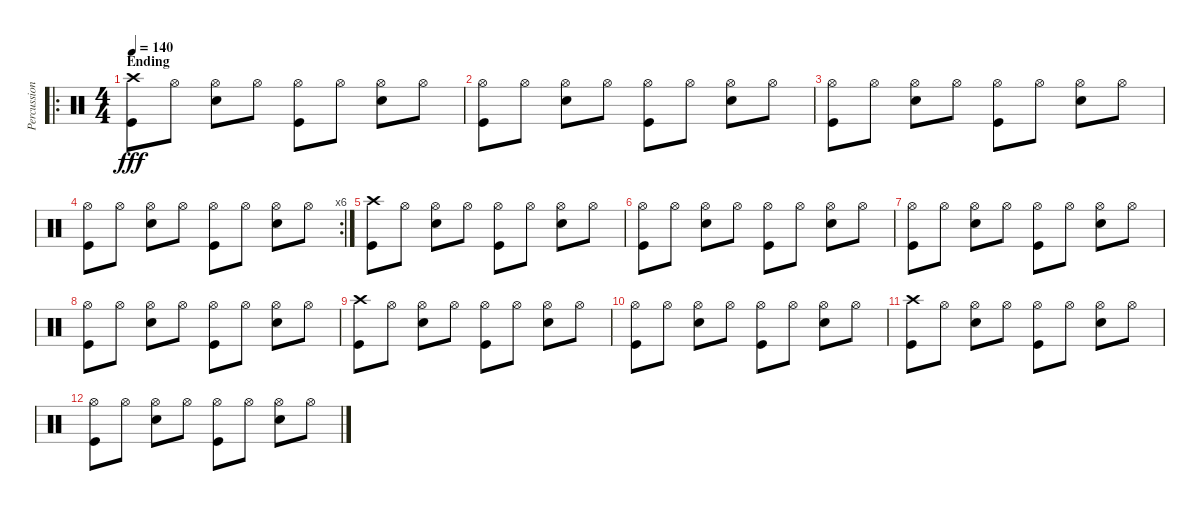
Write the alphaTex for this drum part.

\track ("Percussion" "Percussion") {instrument percussion}
\staff {score}
\articulation defaults
\ro
\ts (4 4)
\section ("" "Ending")
\tempo 140
\clef neutral
\ks c
("Crash high (hit)" "Kick (hit)").8{dy fff} "Hi-Hat (open)".8 ("Hi-Hat (open)" "Snare (hit) 2").8 "Hi-Hat (open)".8 ("Hi-Hat (open)" "Kick (hit)").8 "Hi-Hat (open)".8 ("Hi-Hat (open)" "Snare (hit) 2").8 "Hi-Hat (open)".8 |
("Hi-Hat (open)" "Kick (hit)").8 "Hi-Hat (open)".8 ("Hi-Hat (open)" "Snare (hit) 2").8 "Hi-Hat (open)".8 ("Hi-Hat (open)" "Kick (hit)").8 "Hi-Hat (open)".8 ("Hi-Hat (open)" "Snare (hit) 2").8 "Hi-Hat (open)".8 |
("Hi-Hat (open)" "Kick (hit)").8 "Hi-Hat (open)".8 ("Hi-Hat (open)" "Snare (hit) 2").8 "Hi-Hat (open)".8 ("Hi-Hat (open)" "Kick (hit)").8 "Hi-Hat (open)".8 ("Hi-Hat (open)" "Snare (hit) 2").8 "Hi-Hat (open)".8 |
\rc 6
("Hi-Hat (open)" "Kick (hit)").8 "Hi-Hat (open)".8 ("Hi-Hat (open)" "Snare (hit) 2").8 "Hi-Hat (open)".8 ("Hi-Hat (open)" "Kick (hit)").8 "Hi-Hat (open)".8 ("Hi-Hat (open)" "Snare (hit) 2").8 "Hi-Hat (open)".8 |
("Crash high (hit)" "Kick (hit)").8 "Hi-Hat (open)".8 ("Hi-Hat (open)" "Snare (hit) 2").8 "Hi-Hat (open)".8 ("Hi-Hat (open)" "Kick (hit)").8 "Hi-Hat (open)".8 ("Hi-Hat (open)" "Snare (hit) 2").8 "Hi-Hat (open)".8 |
("Hi-Hat (open)" "Kick (hit)").8 "Hi-Hat (open)".8 ("Hi-Hat (open)" "Snare (hit) 2").8 "Hi-Hat (open)".8 ("Hi-Hat (open)" "Kick (hit)").8 "Hi-Hat (open)".8 ("Hi-Hat (open)" "Snare (hit) 2").8 "Hi-Hat (open)".8 |
("Hi-Hat (open)" "Kick (hit)").8 "Hi-Hat (open)".8 ("Hi-Hat (open)" "Snare (hit) 2").8 "Hi-Hat (open)".8 ("Hi-Hat (open)" "Kick (hit)").8 "Hi-Hat (open)".8 ("Hi-Hat (open)" "Snare (hit) 2").8 "Hi-Hat (open)".8 |
("Hi-Hat (open)" "Kick (hit)").8 "Hi-Hat (open)".8 ("Hi-Hat (open)" "Snare (hit) 2").8 "Hi-Hat (open)".8 ("Hi-Hat (open)" "Kick (hit)").8 "Hi-Hat (open)".8 ("Hi-Hat (open)" "Snare (hit) 2").8 "Hi-Hat (open)".8 |
("Crash high (hit)" "Kick (hit)").8 "Hi-Hat (open)".8 ("Hi-Hat (open)" "Snare (hit) 2").8 "Hi-Hat (open)".8 ("Hi-Hat (open)" "Kick (hit)").8 "Hi-Hat (open)".8 ("Hi-Hat (open)" "Snare (hit) 2").8 "Hi-Hat (open)".8 |
("Hi-Hat (open)" "Kick (hit)").8 "Hi-Hat (open)".8 ("Hi-Hat (open)" "Snare (hit) 2").8 "Hi-Hat (open)".8 ("Hi-Hat (open)" "Kick (hit)").8 "Hi-Hat (open)".8 ("Hi-Hat (open)" "Snare (hit) 2").8 "Hi-Hat (open)".8 |
("Crash high (hit)" "Kick (hit)").8 "Hi-Hat (open)".8 ("Hi-Hat (open)" "Snare (hit) 2").8 "Hi-Hat (open)".8 ("Hi-Hat (open)" "Kick (hit)").8 "Hi-Hat (open)".8 ("Hi-Hat (open)" "Snare (hit) 2").8 "Hi-Hat (open)".8 |
("Hi-Hat (open)" "Kick (hit)").8 "Hi-Hat (open)".8 ("Hi-Hat (open)" "Snare (hit) 2").8 "Hi-Hat (open)".8 ("Hi-Hat (open)" "Kick (hit)").8 "Hi-Hat (open)".8 ("Hi-Hat (open)" "Snare (hit) 2").8 "Hi-Hat (open)".8
